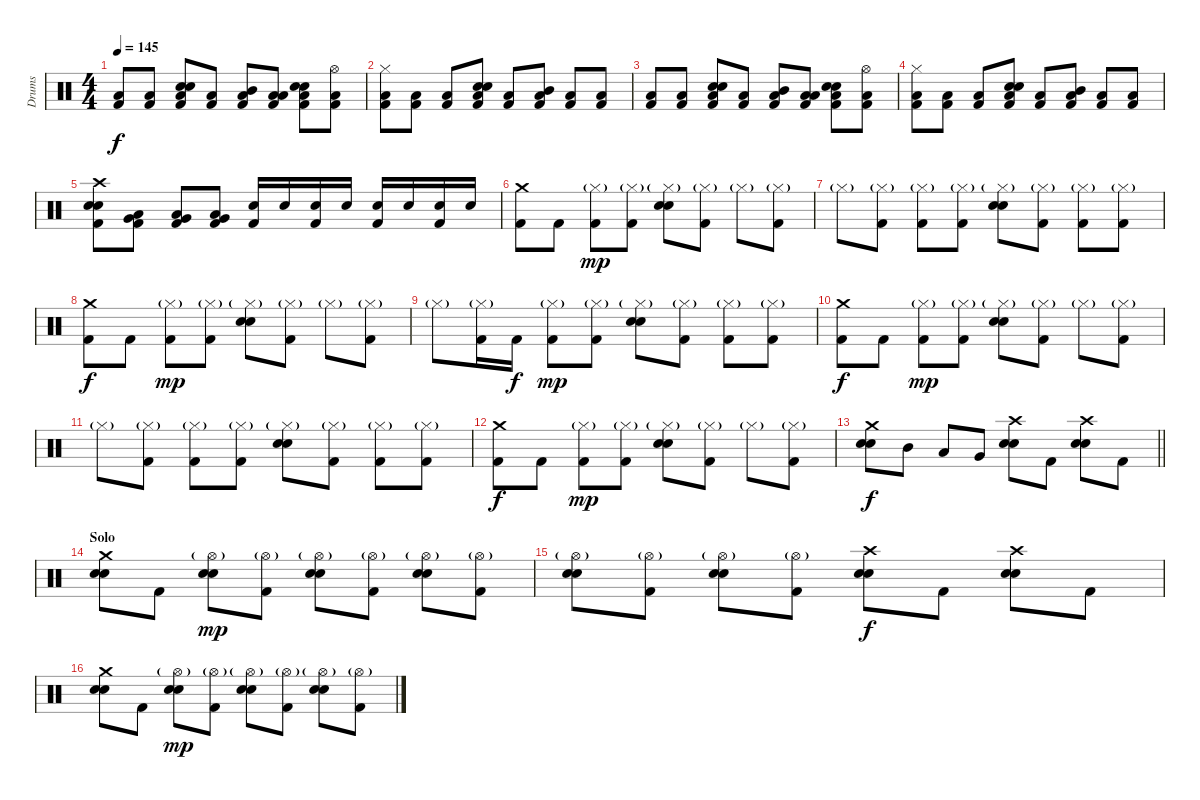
\track ("Drums" "Drums") {instrument percussion}
\staff {score}
\articulation defaults
\ts (4 4)
\tempo 145
\clef neutral
\ks c
("Low Floor Tom (hit)" "Kick (hit) 2").8{dy f} ("Low Floor Tom (hit)" "Kick (hit) 2").8 ("Electric Snare (hit)" "Electric Snare (hit)" "Low Floor Tom (hit)" "Kick (hit) 2").8 ("Low Floor Tom (hit)" "Kick (hit) 2").8 ("Mid Tom (hit)" "Low Floor Tom (hit)" "Kick (hit) 2").8 ("Low Tom (hit)" "Low Floor Tom (hit)" "Kick (hit) 2").8 ("Electric Snare (hit)" "Electric Snare (hit)" "Low Floor Tom (hit)" "Kick (hit) 2").8 ("Hi-Hat (open)" "Low Floor Tom (hit)" "Kick (hit) 2").8 |
("Hi-Hat (closed)" "Low Floor Tom (hit)" "Kick (hit) 2").8 ("Low Floor Tom (hit)" "Kick (hit) 2").8 ("Low Floor Tom (hit)" "Kick (hit) 2").8 ("Electric Snare (hit)" "Electric Snare (hit)" "Low Floor Tom (hit)" "Kick (hit) 2").8 ("Low Floor Tom (hit)" "Kick (hit) 2").8 ("Mid Tom (hit)" "Low Floor Tom (hit)" "Kick (hit) 2").8 ("Low Floor Tom (hit)" "Kick (hit) 2").8 ("Low Floor Tom (hit)" "Kick (hit) 2").8 |
("Low Floor Tom (hit)" "Kick (hit) 2").8 ("Low Floor Tom (hit)" "Kick (hit) 2").8 ("Electric Snare (hit)" "Electric Snare (hit)" "Low Floor Tom (hit)" "Kick (hit) 2").8 ("Low Floor Tom (hit)" "Kick (hit) 2").8 ("Mid Tom (hit)" "Low Floor Tom (hit)" "Kick (hit) 2").8 ("Low Tom (hit)" "Low Floor Tom (hit)" "Kick (hit) 2").8 ("Electric Snare (hit)" "Electric Snare (hit)" "Low Floor Tom (hit)" "Kick (hit) 2").8 ("Hi-Hat (open)" "Low Floor Tom (hit)" "Kick (hit) 2").8 |
("Hi-Hat (closed)" "Low Floor Tom (hit)" "Kick (hit) 2").8 ("Low Floor Tom (hit)" "Kick (hit) 2").8 ("Low Floor Tom (hit)" "Kick (hit) 2").8 ("Electric Snare (hit)" "Electric Snare (hit)" "Low Floor Tom (hit)" "Kick (hit) 2").8 ("Low Floor Tom (hit)" "Kick (hit) 2").8 ("Mid Tom (hit)" "Low Floor Tom (hit)" "Kick (hit) 2").8 ("Low Floor Tom (hit)" "Kick (hit) 2").8 ("Low Floor Tom (hit)" "Kick (hit) 2").8 |
("Crash high (hit)" "Electric Snare (hit)" "Electric Snare (hit)" "Kick (hit) 2").8 ("Low Tom (hit)" "Very Low Tom (hit)" "Kick (hit) 2").8 ("Low Tom (hit)" "Very Low Tom (hit)" "Kick (hit) 2").8 ("Low Tom (hit)" "Very Low Tom (hit)" "Kick (hit) 2").8 ("Electric Snare (hit)" "Kick (hit) 2").16 "Electric Snare (hit)".16 ("Electric Snare (hit)" "Kick (hit) 2").16 "Electric Snare (hit)".16 ("Electric Snare (hit)" "Kick (hit) 2").16 "Electric Snare (hit)".16 ("Electric Snare (hit)" "Kick (hit) 2").16 "Electric Snare (hit)".16 |
("Crash medium (hit)" "Kick (hit) 2").8 "Kick (hit) 2".8 ("Hi-Hat (closed)"{g} "Kick (hit) 2").8{dy mp} ("Hi-Hat (closed)"{g} "Kick (hit) 2").8 ("Hi-Hat (closed)"{g} "Electric Snare (hit)" "Electric Snare (hit)").8 ("Hi-Hat (closed)"{g} "Kick (hit) 2").8 "Hi-Hat (closed)"{g}.8 ("Hi-Hat (closed)"{g} "Kick (hit) 2").8 |
"Hi-Hat (closed)"{g}.8 ("Hi-Hat (closed)"{g} "Kick (hit) 2").8 ("Hi-Hat (closed)"{g} "Kick (hit) 2").8 ("Hi-Hat (closed)"{g} "Kick (hit) 2").8 ("Hi-Hat (closed)"{g} "Electric Snare (hit)" "Electric Snare (hit)").8 ("Hi-Hat (closed)"{g} "Kick (hit) 2").8 ("Hi-Hat (closed)"{g} "Kick (hit) 2").8 ("Hi-Hat (closed)"{g} "Kick (hit) 2").8 |
("Crash medium (hit)" "Kick (hit) 2").8{dy f} "Kick (hit) 2".8 ("Hi-Hat (closed)"{g} "Kick (hit) 2").8{dy mp} ("Hi-Hat (closed)"{g} "Kick (hit) 2").8 ("Hi-Hat (closed)"{g} "Electric Snare (hit)" "Electric Snare (hit)").8 ("Hi-Hat (closed)"{g} "Kick (hit) 2").8 "Hi-Hat (closed)"{g}.8 ("Hi-Hat (closed)"{g} "Kick (hit) 2").8 |
"Hi-Hat (closed)"{g}.8 ("Hi-Hat (closed)"{g} "Kick (hit) 2").16 "Kick (hit) 2".16{dy f} ("Hi-Hat (closed)"{g} "Kick (hit) 2").8{dy mp} ("Hi-Hat (closed)"{g} "Kick (hit) 2").8 ("Hi-Hat (closed)"{g} "Electric Snare (hit)" "Electric Snare (hit)").8 ("Hi-Hat (closed)"{g} "Kick (hit) 2").8 ("Hi-Hat (closed)"{g} "Kick (hit) 2").8 ("Hi-Hat (closed)"{g} "Kick (hit) 2").8 |
("Crash medium (hit)" "Kick (hit) 2").8{dy f} "Kick (hit) 2".8 ("Hi-Hat (closed)"{g} "Kick (hit) 2").8{dy mp} ("Hi-Hat (closed)"{g} "Kick (hit) 2").8 ("Hi-Hat (closed)"{g} "Electric Snare (hit)" "Electric Snare (hit)").8 ("Hi-Hat (closed)"{g} "Kick (hit) 2").8 "Hi-Hat (closed)"{g}.8 ("Hi-Hat (closed)"{g} "Kick (hit) 2").8 |
"Hi-Hat (closed)"{g}.8 ("Hi-Hat (closed)"{g} "Kick (hit) 2").8 ("Hi-Hat (closed)"{g} "Kick (hit) 2").8 ("Hi-Hat (closed)"{g} "Kick (hit) 2").8 ("Hi-Hat (closed)"{g} "Electric Snare (hit)" "Electric Snare (hit)").8 ("Hi-Hat (closed)"{g} "Kick (hit) 2").8 ("Hi-Hat (closed)"{g} "Kick (hit) 2").8 ("Hi-Hat (closed)"{g} "Kick (hit) 2").8 |
("Crash medium (hit)" "Kick (hit) 2").8{dy f} "Kick (hit) 2".8 ("Hi-Hat (closed)"{g} "Kick (hit) 2").8{dy mp} ("Hi-Hat (closed)"{g} "Kick (hit) 2").8 ("Hi-Hat (closed)"{g} "Electric Snare (hit)" "Electric Snare (hit)").8 ("Hi-Hat (closed)"{g} "Kick (hit) 2").8 "Hi-Hat (closed)"{g}.8 ("Hi-Hat (closed)"{g} "Kick (hit) 2").8 |
\barLineRight lightlight
("Crash medium (hit)" "Electric Snare (hit)" "Electric Snare (hit)").8{dy f} "Mid Tom (hit)".8 "Low Tom (hit)".8 "Very Low Tom (hit)".8 ("Crash high (hit)" "Electric Snare (hit)" "Electric Snare (hit)").8 "Kick (hit) 2".8 ("Crash high (hit)" "Electric Snare (hit)" "Electric Snare (hit)").8 "Kick (hit) 2".8 |
\section ("" "Solo")
("Crash medium (hit)" "Electric Snare (hit)" "Electric Snare (hit)").8 "Kick (hit) 2".8 ("Hi-Hat (open)"{g} "Electric Snare (hit)" "Electric Snare (hit)").8{dy mp} ("Hi-Hat (open)"{g} "Kick (hit) 2").8 ("Hi-Hat (open)"{g} "Electric Snare (hit)" "Electric Snare (hit)").8 ("Hi-Hat (open)"{g} "Kick (hit) 2").8 ("Hi-Hat (open)"{g} "Electric Snare (hit)" "Electric Snare (hit)").8 ("Hi-Hat (open)"{g} "Kick (hit) 2").8 |
("Hi-Hat (open)"{g} "Electric Snare (hit)" "Electric Snare (hit)").8 ("Hi-Hat (open)"{g} "Kick (hit) 2").8 ("Hi-Hat (open)"{g} "Electric Snare (hit)" "Electric Snare (hit)").8 ("Hi-Hat (open)"{g} "Kick (hit) 2").8 ("Crash high (hit)" "Electric Snare (hit)" "Electric Snare (hit)").8{dy f} "Kick (hit) 2".8 ("Crash high (hit)" "Electric Snare (hit)" "Electric Snare (hit)").8 "Kick (hit) 2".8 |
("Crash medium (hit)" "Electric Snare (hit)" "Electric Snare (hit)").8 "Kick (hit) 2".8 ("Hi-Hat (open)"{g} "Electric Snare (hit)" "Electric Snare (hit)").8{dy mp} ("Hi-Hat (open)"{g} "Kick (hit) 2").8 ("Hi-Hat (open)"{g} "Electric Snare (hit)" "Electric Snare (hit)").8 ("Hi-Hat (open)"{g} "Kick (hit) 2").8 ("Hi-Hat (open)"{g} "Electric Snare (hit)" "Electric Snare (hit)").8 ("Hi-Hat (open)"{g} "Kick (hit) 2").8
